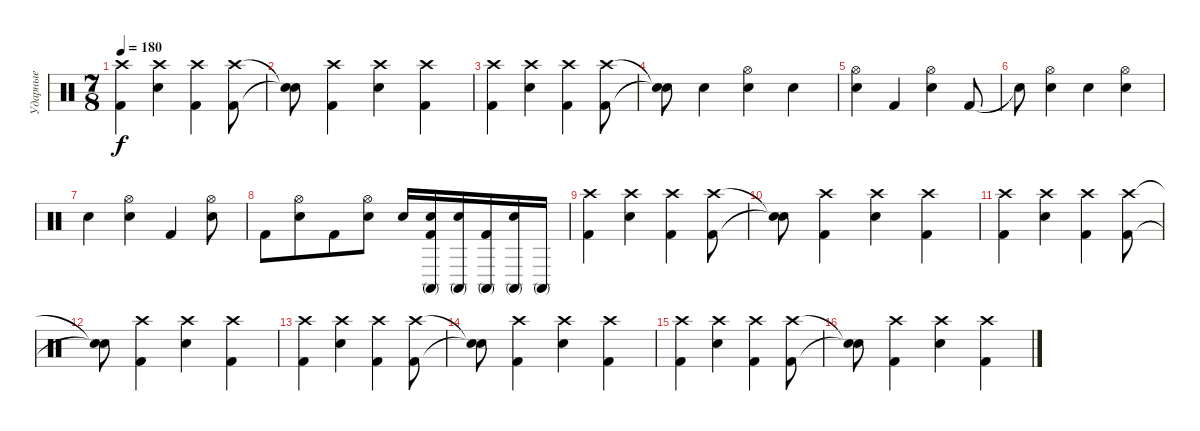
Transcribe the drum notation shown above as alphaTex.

\track ("Ударные" "Ударные") {instrument percussion}
\staff {score}
\articulation defaults
\ts (7 8)
\tempo 180
\clef neutral
\ks c
("Crash high (hit)" "Kick (hit) 2").4{dy f} ("Crash high (hit)" "Snare (hit) 2").4 ("Crash high (hit)" "Kick (hit) 2").4 ("Crash high (hit)" "Kick (hit) 2").8 |
("Snare (hit)"{t} "Snare (hit)"{t}).8 ("Crash high (hit)" "Kick (hit) 2").4 ("Crash high (hit)" "Snare (hit) 2").4 ("Crash high (hit)" "Kick (hit) 2").4 |
("Crash high (hit)" "Kick (hit) 2").4 ("Crash high (hit)" "Snare (hit) 2").4 ("Crash high (hit)" "Kick (hit) 2").4 ("Crash high (hit)" "Kick (hit) 2").8 |
("Snare (hit)"{t} "Snare (hit)"{t}).8 "Electric Snare (hit)".4 ("Hi-Hat (open)" "Snare (hit) 2").4 "Electric Snare (hit)".4 |
("Hi-Hat (open)" "Snare (hit) 2").4 "Kick (hit) 2".4 ("Hi-Hat (open)" "Snare (hit) 2").4 "Kick (hit) 2".8 |
"Snare (hit)"{t}.8 ("Hi-Hat (open)" "Snare (hit) 2").4 "Electric Snare (hit)".4 ("Hi-Hat (open)" "Snare (hit) 2").4 |
"Electric Snare (hit)".4 ("Hi-Hat (open)" "Snare (hit) 2").4 "Kick (hit) 2".4 ("Hi-Hat (open)" "Snare (hit) 2").8 |
"Kick (hit) 2".8 ("Hi-Hat (open)" "Snare (hit) 2").8 "Kick (hit) 2".8 ("Hi-Hat (open)" "Snare (hit) 2").8 "Electric Snare (hit)".16 ("Electric Snare (hit)" "Conga high (mute)" "Kick (hit) 2").16 ("Electric Snare (hit)" "Conga high (mute)").16 ("Conga high (mute)" "Kick (hit) 2").16 ("Electric Snare (hit)" "Conga high (mute)").16 "Conga high (mute)".16 |
("Crash high (hit)" "Kick (hit) 2").4 ("Crash high (hit)" "Snare (hit) 2").4 ("Crash high (hit)" "Kick (hit) 2").4 ("Crash high (hit)" "Kick (hit) 2").8 |
("Snare (hit)"{t} "Snare (hit)"{t}).8 ("Crash high (hit)" "Kick (hit) 2").4 ("Crash high (hit)" "Snare (hit) 2").4 ("Crash high (hit)" "Kick (hit) 2").4 |
("Crash high (hit)" "Kick (hit) 2").4 ("Crash high (hit)" "Snare (hit) 2").4 ("Crash high (hit)" "Kick (hit) 2").4 ("Crash high (hit)" "Kick (hit) 2").8 |
("Snare (hit)"{t} "Snare (hit)"{t}).8 ("Crash high (hit)" "Kick (hit) 2").4 ("Crash high (hit)" "Snare (hit) 2").4 ("Crash high (hit)" "Kick (hit) 2").4 |
("Crash high (hit)" "Kick (hit) 2").4 ("Crash high (hit)" "Snare (hit) 2").4 ("Crash high (hit)" "Kick (hit) 2").4 ("Crash high (hit)" "Kick (hit) 2").8 |
("Snare (hit)"{t} "Snare (hit)"{t}).8 ("Crash high (hit)" "Kick (hit) 2").4 ("Crash high (hit)" "Snare (hit) 2").4 ("Crash high (hit)" "Kick (hit) 2").4 |
("Crash high (hit)" "Kick (hit) 2").4 ("Crash high (hit)" "Snare (hit) 2").4 ("Crash high (hit)" "Kick (hit) 2").4 ("Crash high (hit)" "Kick (hit) 2").8 |
("Snare (hit)"{t} "Snare (hit)"{t}).8 ("Crash high (hit)" "Kick (hit) 2").4 ("Crash high (hit)" "Snare (hit) 2").4 ("Crash high (hit)" "Kick (hit) 2").4
